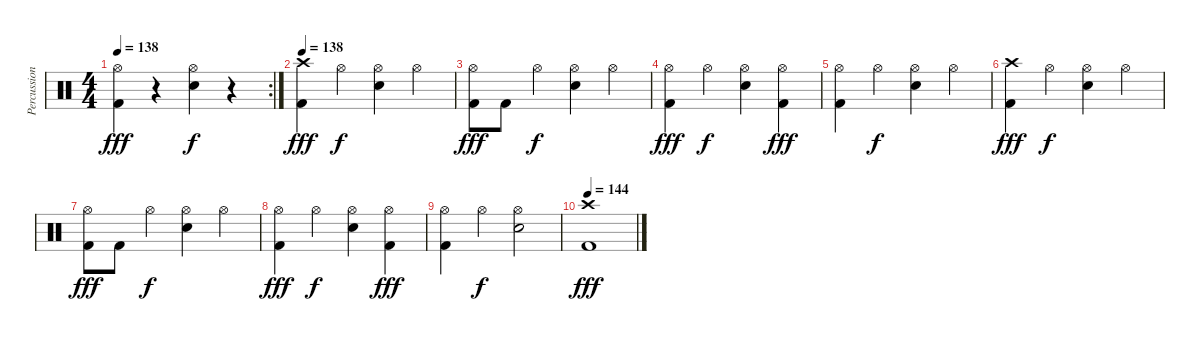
\track ("Percussion" "Percussion") {instrument percussion}
\staff {score}
\articulation defaults
\rc 2
\ts (4 4)
\tempo 138
\clef neutral
\ks c
("Hi-Hat (open)" "Kick (hit) 2").4{dy fff} r.4 ("Hi-Hat (open)" "Snare (hit) 2").4{dy f} r.4 |
\tempo 138
("Crash high (hit)" "Kick (hit) 2").4{dy fff} "Hi-Hat (open)".4{dy f} ("Hi-Hat (open)" "Snare (hit) 2").4 "Hi-Hat (open)".4 |
("Hi-Hat (open)" "Kick (hit) 2").8{dy fff} "Kick (hit) 2".8 "Hi-Hat (open)".4{dy f} ("Hi-Hat (open)" "Snare (hit) 2").4 "Hi-Hat (open)".4 |
("Hi-Hat (open)" "Kick (hit) 2").4{dy fff} "Hi-Hat (open)".4{dy f} ("Hi-Hat (open)" "Snare (hit) 2").4 ("Hi-Hat (open)" "Kick (hit) 2").4{dy fff} |
("Hi-Hat (open)" "Kick (hit) 2").4 "Hi-Hat (open)".4{dy f} ("Hi-Hat (open)" "Snare (hit) 2").4 "Hi-Hat (open)".4 |
("Crash high (hit)" "Kick (hit) 2").4{dy fff} "Hi-Hat (open)".4{dy f} ("Hi-Hat (open)" "Snare (hit) 2").4 "Hi-Hat (open)".4 |
("Hi-Hat (open)" "Kick (hit) 2").8{dy fff} "Kick (hit) 2".8 "Hi-Hat (open)".4{dy f} ("Hi-Hat (open)" "Snare (hit) 2").4 "Hi-Hat (open)".4 |
("Hi-Hat (open)" "Kick (hit) 2").4{dy fff} "Hi-Hat (open)".4{dy f} ("Hi-Hat (open)" "Snare (hit) 2").4 ("Hi-Hat (open)" "Kick (hit) 2").4{dy fff} |
("Hi-Hat (open)" "Kick (hit) 2").4 "Hi-Hat (open)".4{dy f} ("Hi-Hat (open)" "Snare (hit) 2").2 |
\tempo 144
("Crash high (hit)" "Kick (hit) 2").1{dy fff}
